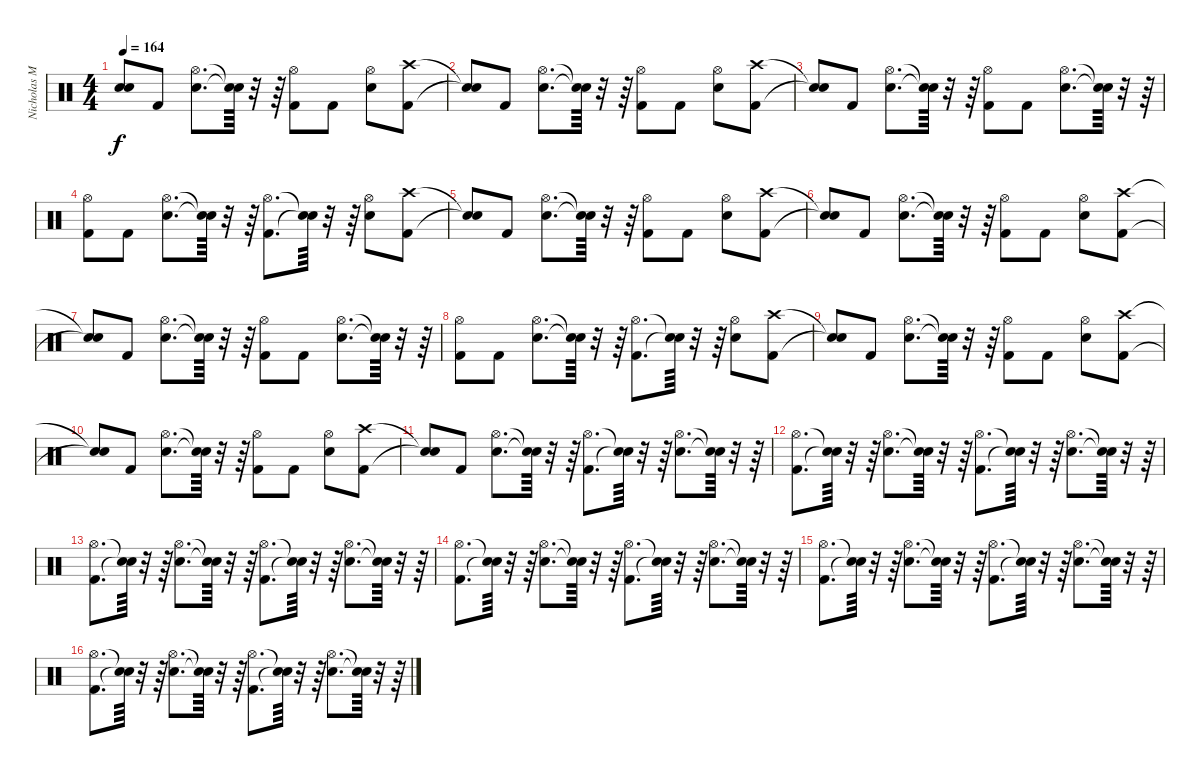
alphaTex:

\track ("Nicholas McBrain (Drums)" "Nicholas M") {instrument percussion}
\staff {score}
\articulation defaults
\ts (4 4)
\tempo 164
\clef neutral
\ks c
("Snare (hit)"{t} "Snare (hit)"{t}).8{dy f} "Kick (hit) 2".8 ("Snare (hit) 2" "Hi-Hat (open)").8{d} ("Snare (hit)"{t} "Snare (hit)"{t}).64 r.32 r.64 ("Kick (hit) 2" "Hi-Hat (open)").8 "Kick (hit) 2".8 ("Snare (hit) 2" "Hi-Hat (open)").8 ("Kick (hit) 2" "Crash high (hit)").8 |
("Snare (hit)"{t} "Snare (hit)"{t}).8 "Kick (hit) 2".8 ("Snare (hit) 2" "Hi-Hat (open)").8{d} ("Snare (hit)"{t} "Snare (hit)"{t}).64 r.32 r.64 ("Kick (hit) 2" "Hi-Hat (open)").8 "Kick (hit) 2".8 ("Snare (hit) 2" "Hi-Hat (open)").8 ("Kick (hit) 2" "Crash high (hit)").8 |
("Snare (hit)"{t} "Snare (hit)"{t}).8 "Kick (hit) 2".8 ("Snare (hit) 2" "Hi-Hat (open)").8{d} ("Snare (hit)"{t} "Snare (hit)"{t}).64 r.32 r.64 ("Kick (hit) 2" "Hi-Hat (open)").8 "Kick (hit) 2".8 ("Snare (hit) 2" "Hi-Hat (open)").8{d} ("Snare (hit)"{t} "Snare (hit)"{t}).64 r.32 r.64 |
("Kick (hit) 2" "Hi-Hat (open)").8 "Kick (hit) 2".8 ("Snare (hit) 2" "Hi-Hat (open)").8{d} ("Snare (hit)"{t} "Snare (hit)"{t}).64 r.32 r.64 ("Kick (hit) 2" "Hi-Hat (open)").8{d} ("Snare (hit)"{t} "Snare (hit)"{t}).64 r.32 r.64 ("Snare (hit) 2" "Hi-Hat (open)").8 ("Kick (hit) 2" "Crash high (hit)").8 |
("Snare (hit)"{t} "Snare (hit)"{t}).8 "Kick (hit) 2".8 ("Snare (hit) 2" "Hi-Hat (open)").8{d} ("Snare (hit)"{t} "Snare (hit)"{t}).64 r.32 r.64 ("Kick (hit) 2" "Hi-Hat (open)").8 "Kick (hit) 2".8 ("Snare (hit) 2" "Hi-Hat (open)").8 ("Kick (hit) 2" "Crash high (hit)").8 |
("Snare (hit)"{t} "Snare (hit)"{t}).8 "Kick (hit) 2".8 ("Snare (hit) 2" "Hi-Hat (open)").8{d} ("Snare (hit)"{t} "Snare (hit)"{t}).64 r.32 r.64 ("Kick (hit) 2" "Hi-Hat (open)").8 "Kick (hit) 2".8 ("Snare (hit) 2" "Hi-Hat (open)").8 ("Kick (hit) 2" "Crash high (hit)").8 |
("Snare (hit)"{t} "Snare (hit)"{t}).8 "Kick (hit) 2".8 ("Snare (hit) 2" "Hi-Hat (open)").8{d} ("Snare (hit)"{t} "Snare (hit)"{t}).64 r.32 r.64 ("Kick (hit) 2" "Hi-Hat (open)").8 "Kick (hit) 2".8 ("Snare (hit) 2" "Hi-Hat (open)").8{d} ("Snare (hit)"{t} "Snare (hit)"{t}).64 r.32 r.64 |
("Kick (hit) 2" "Hi-Hat (open)").8 "Kick (hit) 2".8 ("Snare (hit) 2" "Hi-Hat (open)").8{d} ("Snare (hit)"{t} "Snare (hit)"{t}).64 r.32 r.64 ("Kick (hit) 2" "Hi-Hat (open)").8{d} ("Snare (hit)"{t} "Snare (hit)"{t}).64 r.32 r.64 ("Snare (hit) 2" "Hi-Hat (open)").8 ("Kick (hit) 2" "Crash high (hit)").8 |
("Snare (hit)"{t} "Snare (hit)"{t}).8 "Kick (hit) 2".8 ("Snare (hit) 2" "Hi-Hat (open)").8{d} ("Snare (hit)"{t} "Snare (hit)"{t}).64 r.32 r.64 ("Kick (hit) 2" "Hi-Hat (open)").8 "Kick (hit) 2".8 ("Snare (hit) 2" "Hi-Hat (open)").8 ("Kick (hit) 2" "Crash high (hit)").8 |
("Snare (hit)"{t} "Snare (hit)"{t}).8 "Kick (hit) 2".8 ("Snare (hit) 2" "Hi-Hat (open)").8{d} ("Snare (hit)"{t} "Snare (hit)"{t}).64 r.32 r.64 ("Kick (hit) 2" "Hi-Hat (open)").8 "Kick (hit) 2".8 ("Snare (hit) 2" "Hi-Hat (open)").8 ("Kick (hit) 2" "Crash high (hit)").8 |
("Snare (hit)"{t} "Snare (hit)"{t}).8 "Kick (hit) 2".8 ("Snare (hit) 2" "Hi-Hat (open)").8{d} ("Snare (hit)"{t} "Snare (hit)"{t}).64 r.32 r.64 ("Kick (hit) 2" "Hi-Hat (open)").8{d} ("Snare (hit)"{t} "Snare (hit)"{t}).64 r.32 r.64 ("Snare (hit) 2" "Hi-Hat (open)").8{d} ("Snare (hit)"{t} "Snare (hit)"{t}).64 r.32 r.64 |
("Kick (hit) 2" "Hi-Hat (open)").8{d} ("Snare (hit)"{t} "Snare (hit)"{t}).64 r.32 r.64 ("Snare (hit) 2" "Hi-Hat (open)").8{d} ("Snare (hit)"{t} "Snare (hit)"{t}).64 r.32 r.64 ("Kick (hit) 2" "Hi-Hat (open)").8{d} ("Snare (hit)"{t} "Snare (hit)"{t}).64 r.32 r.64 ("Snare (hit) 2" "Hi-Hat (open)").8{d} ("Snare (hit)"{t} "Snare (hit)"{t}).64 r.32 r.64 |
("Kick (hit) 2" "Hi-Hat (open)").8{d} ("Snare (hit)"{t} "Snare (hit)"{t}).64 r.32 r.64 ("Snare (hit) 2" "Hi-Hat (open)").8{d} ("Snare (hit)"{t} "Snare (hit)"{t}).64 r.32 r.64 ("Kick (hit) 2" "Hi-Hat (open)").8{d} ("Snare (hit)"{t} "Snare (hit)"{t}).64 r.32 r.64 ("Snare (hit) 2" "Hi-Hat (open)").8{d} ("Snare (hit)"{t} "Snare (hit)"{t}).64 r.32 r.64 |
("Kick (hit) 2" "Hi-Hat (open)").8{d} ("Snare (hit)"{t} "Snare (hit)"{t}).64 r.32 r.64 ("Snare (hit) 2" "Hi-Hat (open)").8{d} ("Snare (hit)"{t} "Snare (hit)"{t}).64 r.32 r.64 ("Kick (hit) 2" "Hi-Hat (open)").8{d} ("Snare (hit)"{t} "Snare (hit)"{t}).64 r.32 r.64 ("Snare (hit) 2" "Hi-Hat (open)").8{d} ("Snare (hit)"{t} "Snare (hit)"{t}).64 r.32 r.64 |
("Kick (hit) 2" "Hi-Hat (open)").8{d} ("Snare (hit)"{t} "Snare (hit)"{t}).64 r.32 r.64 ("Snare (hit) 2" "Hi-Hat (open)").8{d} ("Snare (hit)"{t} "Snare (hit)"{t}).64 r.32 r.64 ("Kick (hit) 2" "Hi-Hat (open)").8{d} ("Snare (hit)"{t} "Snare (hit)"{t}).64 r.32 r.64 ("Snare (hit) 2" "Hi-Hat (open)").8{d} ("Snare (hit)"{t} "Snare (hit)"{t}).64 r.32 r.64 |
("Kick (hit) 2" "Hi-Hat (open)").8{d} ("Snare (hit)"{t} "Snare (hit)"{t}).64 r.32 r.64 ("Snare (hit) 2" "Hi-Hat (open)").8{d} ("Snare (hit)"{t} "Snare (hit)"{t}).64 r.32 r.64 ("Kick (hit) 2" "Hi-Hat (open)").8{d} ("Snare (hit)"{t} "Snare (hit)"{t}).64 r.32 r.64 ("Snare (hit) 2" "Hi-Hat (open)").8{d} ("Snare (hit)"{t} "Snare (hit)"{t}).64 r.32 r.64
